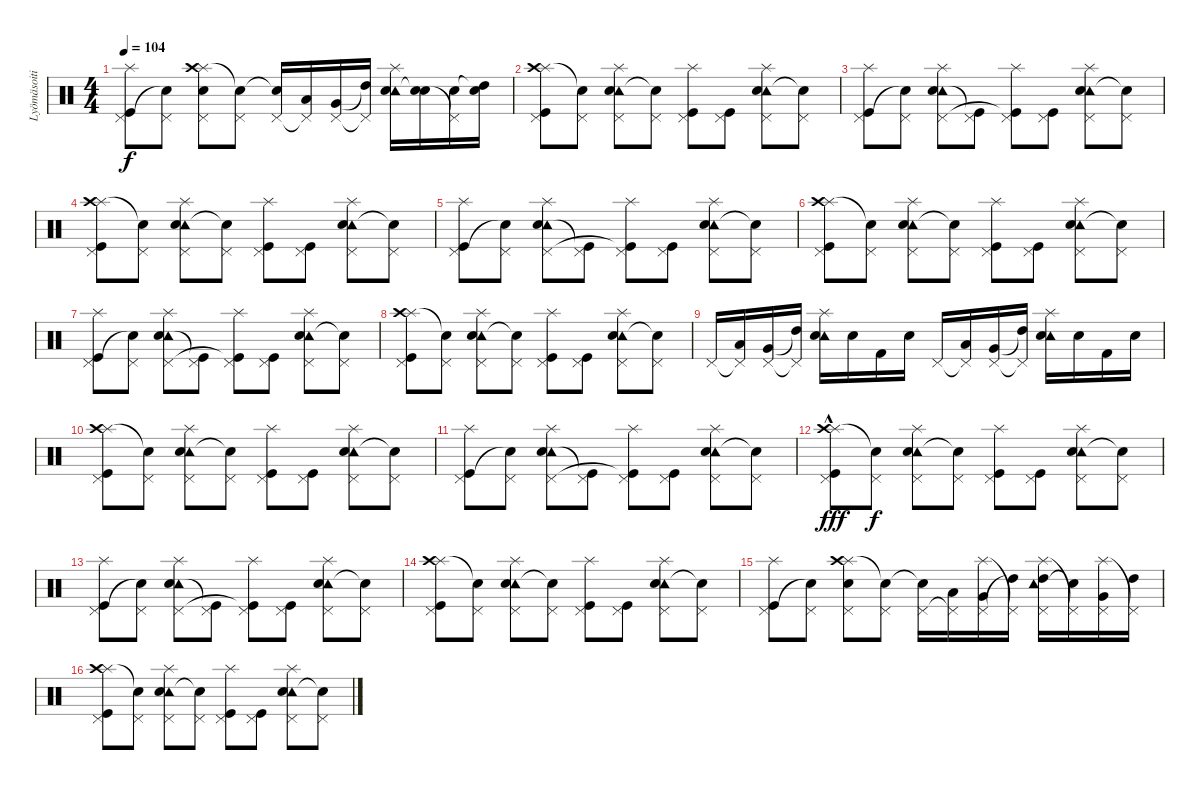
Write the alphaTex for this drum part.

\track ("Lyömäsoitin" "Lyömäsoiti") {instrument percussion}
\staff {score}
\articulation defaults
\ts (4 4)
\tempo 104
\clef neutral
\ks c
("Splash (hit)" "Pedal Hi-Hat (hit)" "Kick (hit)").8{dy f} ("Pedal Hi-Hat (hit)" "Snare (hit)"{t}).8 ("Splash (hit)" "Crash high (hit)" "Pedal Hi-Hat (hit)" "Snare (hit) 2").8 ("Pedal Hi-Hat (hit)" "Snare (hit)"{t}).8 ("Pedal Hi-Hat (hit)" "Snare (hit)"{t}).16 ("Pedal Hi-Hat (hit)"{t} "Low Tom (hit)").16 ("Pedal Hi-Hat (hit)" "Very Low Tom (hit)").16 ("Pedal Hi-Hat (hit)"{t} "High Tom (hit)"{t}).16 ("Splash (hit)" "Tambourine (hit)" "Electric Snare (hit)").16 ("Electric Snare (hit)" "Snare (hit)"{t}).16 ("Pedal Hi-Hat (hit)"{t} "Snare (hit) 2").16 ("Electric Snare (hit)" "High Tom (hit)"{t}).16 |
("Splash (hit)" "Crash high (hit)" "Pedal Hi-Hat (hit)" "Kick (hit)").8 ("Pedal Hi-Hat (hit)" "Snare (hit)"{t}).8 ("Splash (hit)" "Tambourine (hit)" "Pedal Hi-Hat (hit)" "Snare (hit) 2").8 ("Pedal Hi-Hat (hit)" "Snare (hit)"{t}).8 ("Splash (hit)" "Pedal Hi-Hat (hit)" "Kick (hit)").8 ("Pedal Hi-Hat (hit)" "Kick (hit)").8 ("Splash (hit)" "Tambourine (hit)" "Pedal Hi-Hat (hit)" "Snare (hit) 2").8 ("Pedal Hi-Hat (hit)" "Snare (hit)"{t}).8 |
("Splash (hit)" "Pedal Hi-Hat (hit)" "Kick (hit)").8 ("Pedal Hi-Hat (hit)" "Snare (hit)"{t}).8 ("Splash (hit)" "Tambourine (hit)" "Pedal Hi-Hat (hit)" "Snare (hit) 2").8 ("Pedal Hi-Hat (hit)" "Kick (hit)"{t}).8 ("Splash (hit)" "Pedal Hi-Hat (hit)" "Kick (hit)"{t}).8 ("Pedal Hi-Hat (hit)" "Kick (hit)").8 ("Splash (hit)" "Tambourine (hit)" "Pedal Hi-Hat (hit)" "Snare (hit) 2").8 ("Pedal Hi-Hat (hit)" "Snare (hit) 2"{t}).8 |
("Splash (hit)" "Crash high (hit)" "Pedal Hi-Hat (hit)" "Kick (hit)").8 ("Pedal Hi-Hat (hit)" "Snare (hit)"{t}).8 ("Splash (hit)" "Tambourine (hit)" "Pedal Hi-Hat (hit)" "Snare (hit) 2").8 ("Pedal Hi-Hat (hit)" "Snare (hit)"{t}).8 ("Splash (hit)" "Pedal Hi-Hat (hit)" "Kick (hit)").8 ("Pedal Hi-Hat (hit)" "Kick (hit)").8 ("Splash (hit)" "Tambourine (hit)" "Pedal Hi-Hat (hit)" "Snare (hit) 2").8 ("Pedal Hi-Hat (hit)" "Snare (hit)"{t}).8 |
("Splash (hit)" "Pedal Hi-Hat (hit)" "Kick (hit)").8 ("Pedal Hi-Hat (hit)" "Snare (hit)"{t}).8 ("Splash (hit)" "Tambourine (hit)" "Pedal Hi-Hat (hit)" "Snare (hit) 2").8 ("Pedal Hi-Hat (hit)" "Kick (hit)"{t}).8 ("Splash (hit)" "Pedal Hi-Hat (hit)" "Kick (hit)"{t}).8 ("Pedal Hi-Hat (hit)" "Kick (hit)").8 ("Splash (hit)" "Tambourine (hit)" "Pedal Hi-Hat (hit)" "Snare (hit) 2").8 ("Pedal Hi-Hat (hit)" "Snare (hit) 2"{t}).8 |
("Splash (hit)" "Crash high (hit)" "Pedal Hi-Hat (hit)" "Kick (hit)").8 ("Pedal Hi-Hat (hit)" "Snare (hit)"{t}).8 ("Splash (hit)" "Tambourine (hit)" "Pedal Hi-Hat (hit)" "Snare (hit) 2").8 ("Pedal Hi-Hat (hit)" "Snare (hit)"{t}).8 ("Splash (hit)" "Pedal Hi-Hat (hit)" "Kick (hit)").8 ("Pedal Hi-Hat (hit)" "Kick (hit)").8 ("Splash (hit)" "Tambourine (hit)" "Pedal Hi-Hat (hit)" "Snare (hit) 2").8 ("Pedal Hi-Hat (hit)" "Snare (hit)"{t}).8 |
("Splash (hit)" "Pedal Hi-Hat (hit)" "Kick (hit)").8 ("Pedal Hi-Hat (hit)" "Snare (hit)"{t}).8 ("Splash (hit)" "Tambourine (hit)" "Pedal Hi-Hat (hit)" "Snare (hit) 2").8 ("Pedal Hi-Hat (hit)" "Kick (hit)"{t}).8 ("Splash (hit)" "Pedal Hi-Hat (hit)" "Kick (hit)"{t}).8 ("Pedal Hi-Hat (hit)" "Kick (hit)").8 ("Splash (hit)" "Tambourine (hit)" "Pedal Hi-Hat (hit)" "Snare (hit) 2").8 ("Pedal Hi-Hat (hit)" "Snare (hit) 2"{t}).8 |
("Splash (hit)" "Crash high (hit)" "Pedal Hi-Hat (hit)" "Kick (hit)").8 ("Pedal Hi-Hat (hit)" "Snare (hit)"{t}).8 ("Splash (hit)" "Tambourine (hit)" "Pedal Hi-Hat (hit)" "Snare (hit) 2").8 ("Pedal Hi-Hat (hit)" "Snare (hit)"{t}).8 ("Splash (hit)" "Pedal Hi-Hat (hit)" "Kick (hit)").8 ("Pedal Hi-Hat (hit)" "Kick (hit)").8 ("Splash (hit)" "Tambourine (hit)" "Pedal Hi-Hat (hit)" "Snare (hit) 2").8 ("Pedal Hi-Hat (hit)" "Snare (hit)"{t}).8 |
"Pedal Hi-Hat (hit)".16 ("Pedal Hi-Hat (hit)"{t} "Low Tom (hit)").16 ("Pedal Hi-Hat (hit)" "Very Low Tom (hit)").16 ("Pedal Hi-Hat (hit)"{t} "High Tom (hit)"{t}).16 ("Splash (hit)" "Tambourine (hit)" "Electric Snare (hit)").16 "Snare (hit) 2".16 "Kick (hit) 2".16 "Snare (hit) 2".16 "Pedal Hi-Hat (hit)".16 ("Pedal Hi-Hat (hit)"{t} "Low Tom (hit)").16 ("Pedal Hi-Hat (hit)" "Very Low Tom (hit)").16 ("Pedal Hi-Hat (hit)"{t} "High Tom (hit)"{t}).16 ("Splash (hit)" "Tambourine (hit)" "Electric Snare (hit)").16 "Snare (hit) 2".16 "Kick (hit) 2".16 "Snare (hit) 2".16 |
("Splash (hit)" "Crash high (hit)" "Pedal Hi-Hat (hit)" "Kick (hit)").8 ("Pedal Hi-Hat (hit)" "Snare (hit)"{t}).8 ("Splash (hit)" "Tambourine (hit)" "Pedal Hi-Hat (hit)" "Snare (hit) 2").8 ("Pedal Hi-Hat (hit)" "Snare (hit)"{t}).8 ("Splash (hit)" "Pedal Hi-Hat (hit)" "Kick (hit)").8 ("Pedal Hi-Hat (hit)" "Kick (hit)").8 ("Splash (hit)" "Tambourine (hit)" "Pedal Hi-Hat (hit)" "Snare (hit) 2").8 ("Pedal Hi-Hat (hit)" "Snare (hit)"{t}).8 |
("Splash (hit)" "Pedal Hi-Hat (hit)" "Kick (hit)").8 ("Pedal Hi-Hat (hit)" "Snare (hit)"{t}).8 ("Splash (hit)" "Tambourine (hit)" "Pedal Hi-Hat (hit)" "Snare (hit) 2").8 ("Pedal Hi-Hat (hit)" "Kick (hit)"{t}).8 ("Splash (hit)" "Pedal Hi-Hat (hit)" "Kick (hit)"{t}).8 ("Pedal Hi-Hat (hit)" "Kick (hit)").8 ("Splash (hit)" "Tambourine (hit)" "Pedal Hi-Hat (hit)" "Snare (hit) 2").8 ("Pedal Hi-Hat (hit)" "Snare (hit) 2"{t}).8 |
("Splash (hit)" "Crash high (hit)"{hac} "Pedal Hi-Hat (hit)" "Kick (hit)").8{dy fff} ("Pedal Hi-Hat (hit)" "Snare (hit)"{t}).8{dy f} ("Splash (hit)" "Tambourine (hit)" "Pedal Hi-Hat (hit)" "Snare (hit) 2").8 ("Pedal Hi-Hat (hit)" "Snare (hit)"{t}).8 ("Splash (hit)" "Pedal Hi-Hat (hit)" "Kick (hit)").8 ("Pedal Hi-Hat (hit)" "Kick (hit)").8 ("Splash (hit)" "Tambourine (hit)" "Pedal Hi-Hat (hit)" "Snare (hit) 2").8 ("Pedal Hi-Hat (hit)" "Snare (hit)"{t}).8 |
("Splash (hit)" "Pedal Hi-Hat (hit)" "Kick (hit)").8 ("Pedal Hi-Hat (hit)" "Snare (hit)"{t}).8 ("Splash (hit)" "Tambourine (hit)" "Pedal Hi-Hat (hit)" "Snare (hit) 2").8 ("Pedal Hi-Hat (hit)" "Kick (hit)"{t}).8 ("Splash (hit)" "Pedal Hi-Hat (hit)" "Kick (hit)"{t}).8 ("Pedal Hi-Hat (hit)" "Kick (hit)").8 ("Splash (hit)" "Tambourine (hit)" "Pedal Hi-Hat (hit)" "Snare (hit) 2").8 ("Pedal Hi-Hat (hit)" "Snare (hit) 2"{t}).8 |
("Splash (hit)" "Crash high (hit)" "Pedal Hi-Hat (hit)" "Kick (hit)").8 ("Pedal Hi-Hat (hit)" "Snare (hit)"{t}).8 ("Splash (hit)" "Tambourine (hit)" "Pedal Hi-Hat (hit)" "Snare (hit) 2").8 ("Pedal Hi-Hat (hit)" "Snare (hit)"{t}).8 ("Splash (hit)" "Pedal Hi-Hat (hit)" "Kick (hit)").8 ("Pedal Hi-Hat (hit)" "Kick (hit)").8 ("Splash (hit)" "Tambourine (hit)" "Pedal Hi-Hat (hit)" "Snare (hit) 2").8 ("Pedal Hi-Hat (hit)" "Snare (hit)"{t}).8 |
("Splash (hit)" "Pedal Hi-Hat (hit)" "Kick (hit)").8 ("Pedal Hi-Hat (hit)" "Snare (hit)"{t}).8 ("Splash (hit)" "Crash high (hit)" "Pedal Hi-Hat (hit)" "Snare (hit) 2").8 ("Pedal Hi-Hat (hit)" "Snare (hit)"{t}).8 ("Pedal Hi-Hat (hit)" "Snare (hit)"{t}).16 ("Pedal Hi-Hat (hit)"{t} "Low Tom (hit)").16 ("Splash (hit)" "Pedal Hi-Hat (hit)" "Very Low Tom (hit)").16 ("Pedal Hi-Hat (hit)"{t} "High Tom (hit)"{t}).16 ("Splash (hit)" "Tambourine (hit)" "Pedal Hi-Hat (hit)" "High Tom (hit)").16 ("Pedal Hi-Hat (hit)"{t} "Snare (hit)"{t}).16 ("Splash (hit)" "Pedal Hi-Hat (hit)" "Very Low Tom (hit)").16 ("Pedal Hi-Hat (hit)"{t} "High Tom (hit)").16 |
("Splash (hit)" "Crash high (hit)" "Pedal Hi-Hat (hit)" "Kick (hit)").8 ("Pedal Hi-Hat (hit)" "Snare (hit)"{t}).8 ("Splash (hit)" "Tambourine (hit)" "Pedal Hi-Hat (hit)" "Snare (hit) 2").8 ("Pedal Hi-Hat (hit)" "Snare (hit)"{t}).8 ("Splash (hit)" "Pedal Hi-Hat (hit)" "Kick (hit)").8 ("Pedal Hi-Hat (hit)" "Kick (hit)").8 ("Splash (hit)" "Tambourine (hit)" "Pedal Hi-Hat (hit)" "Snare (hit) 2").8 ("Pedal Hi-Hat (hit)" "Snare (hit)"{t}).8
